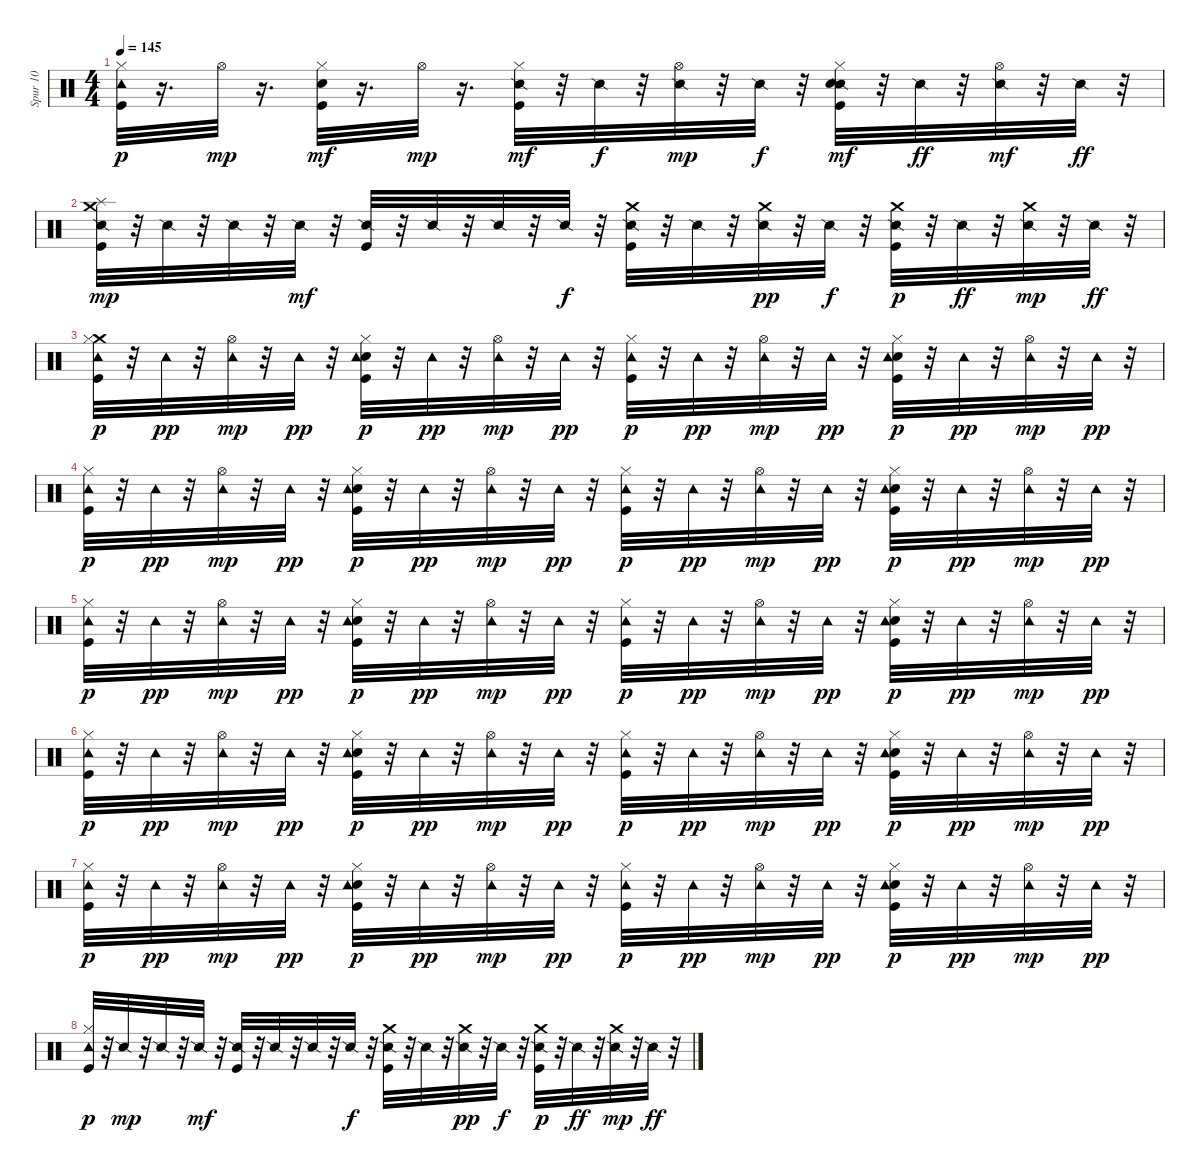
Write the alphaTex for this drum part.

\track ("Spur 10" "Spur 10") {instrument percussion}
\staff {score}
\articulation defaults
\ts (4 4)
\tempo 145
\clef neutral
\ks c
("Kick (hit)" "Hi-Hat (closed)" "Tambourine (hit)").32{dy p} r.16{d} "Hi-Hat (open)".32{dy mp} r.16{d} ("Kick (hit)" "Snare (hit) 2" "Hi-Hat (closed)").32{dy mf} r.16{d} "Hi-Hat (open)".32{dy mp} r.16{d} ("Snare (side stick) 2" "Kick (hit)" "Hi-Hat (closed)").32{dy mf} r.32 "Snare (side stick) 2".32{dy f} r.32 ("Snare (side stick) 2" "Hi-Hat (open)").32{dy mp balance 11} r.32 "Snare (side stick) 2".32{dy f} r.32 ("Snare (side stick) 2" "Kick (hit)" "Snare (hit) 2" "Hi-Hat (closed)").32{dy mf balance 8} r.32 "Snare (side stick) 2".32{dy ff} r.32 ("Snare (side stick) 2" "Hi-Hat (open)").32{dy mf balance 4} r.32 "Snare (side stick) 2".32{dy ff} r.32 |
("Crash medium (hit)" "Snare (side stick) 2" "Kick (hit)" "Splash (hit)").32{dy mp balance 8} r.32 "Snare (side stick) 2".32 r.32 "Snare (side stick) 2".32 r.32 "Snare (side stick) 2".32{dy mf} r.32 ("Snare (side stick) 2" "Kick (hit)").32 r.32 "Snare (side stick) 2".32 r.32 "Snare (side stick) 2".32 r.32 "Snare (side stick) 2".32{dy f} r.32 ("Snare (side stick) 2" "Kick (hit)" "Crash medium (hit)").32{balance 10} r.32 "Snare (side stick) 2".32 r.32 ("Snare (side stick) 2" "Crash medium (hit)").32{dy pp balance 14} r.32 "Snare (side stick) 2".32{dy f} r.32 ("Snare (side stick) 2" "Kick (hit)" "Crash medium (hit)").32{dy p balance 7} r.32 "Snare (side stick) 2".32{dy ff} r.32 ("Snare (side stick) 2" "Crash medium (hit)").32{dy mp balance 0} r.32 "Snare (side stick) 2".32{dy ff} r.32 |
("Crash medium (hit)" "Kick (hit)" "Hi-Hat (closed)" "Tambourine (hit)").32{dy p balance 8} r.32 "Tambourine (hit)".32{dy pp} r.32 ("Hi-Hat (open)" "Tambourine (hit)").32{dy mp} r.32 "Tambourine (hit)".32{dy pp} r.32 ("Kick (hit)" "Snare (hit) 2" "Hi-Hat (closed)" "Tambourine (hit)").32{dy p} r.32 "Tambourine (hit)".32{dy pp} r.32 ("Hi-Hat (open)" "Tambourine (hit)").32{dy mp} r.32 "Tambourine (hit)".32{dy pp} r.32 ("Kick (hit)" "Hi-Hat (closed)" "Tambourine (hit)").32{dy p} r.32 "Tambourine (hit)".32{dy pp} r.32 ("Hi-Hat (open)" "Tambourine (hit)").32{dy mp} r.32 "Tambourine (hit)".32{dy pp} r.32 ("Kick (hit)" "Snare (hit) 2" "Hi-Hat (closed)" "Tambourine (hit)").32{dy p} r.32 "Tambourine (hit)".32{dy pp} r.32 ("Hi-Hat (open)" "Tambourine (hit)").32{dy mp} r.32 "Tambourine (hit)".32{dy pp} r.32 |
("Kick (hit)" "Hi-Hat (closed)" "Tambourine (hit)").32{dy p} r.32 "Tambourine (hit)".32{dy pp} r.32 ("Hi-Hat (open)" "Tambourine (hit)").32{dy mp} r.32 "Tambourine (hit)".32{dy pp} r.32 ("Kick (hit)" "Snare (hit) 2" "Hi-Hat (closed)" "Tambourine (hit)").32{dy p} r.32 "Tambourine (hit)".32{dy pp} r.32 ("Hi-Hat (open)" "Tambourine (hit)").32{dy mp} r.32 "Tambourine (hit)".32{dy pp} r.32 ("Kick (hit)" "Hi-Hat (closed)" "Tambourine (hit)").32{dy p} r.32 "Tambourine (hit)".32{dy pp} r.32 ("Hi-Hat (open)" "Tambourine (hit)").32{dy mp} r.32 "Tambourine (hit)".32{dy pp} r.32 ("Kick (hit)" "Snare (hit) 2" "Hi-Hat (closed)" "Tambourine (hit)").32{dy p} r.32 "Tambourine (hit)".32{dy pp} r.32 ("Hi-Hat (open)" "Tambourine (hit)").32{dy mp} r.32 "Tambourine (hit)".32{dy pp} r.32 |
("Kick (hit)" "Hi-Hat (closed)" "Tambourine (hit)").32{dy p} r.32 "Tambourine (hit)".32{dy pp} r.32 ("Hi-Hat (open)" "Tambourine (hit)").32{dy mp} r.32 "Tambourine (hit)".32{dy pp} r.32 ("Kick (hit)" "Snare (hit) 2" "Hi-Hat (closed)" "Tambourine (hit)").32{dy p} r.32 "Tambourine (hit)".32{dy pp} r.32 ("Hi-Hat (open)" "Tambourine (hit)").32{dy mp} r.32 "Tambourine (hit)".32{dy pp} r.32 ("Kick (hit)" "Hi-Hat (closed)" "Tambourine (hit)").32{dy p} r.32 "Tambourine (hit)".32{dy pp} r.32 ("Hi-Hat (open)" "Tambourine (hit)").32{dy mp} r.32 "Tambourine (hit)".32{dy pp} r.32 ("Kick (hit)" "Snare (hit) 2" "Hi-Hat (closed)" "Tambourine (hit)").32{dy p} r.32 "Tambourine (hit)".32{dy pp} r.32 ("Hi-Hat (open)" "Tambourine (hit)").32{dy mp} r.32 "Tambourine (hit)".32{dy pp} r.32 |
("Kick (hit)" "Hi-Hat (closed)" "Tambourine (hit)").32{dy p} r.32 "Tambourine (hit)".32{dy pp} r.32 ("Hi-Hat (open)" "Tambourine (hit)").32{dy mp} r.32 "Tambourine (hit)".32{dy pp} r.32 ("Kick (hit)" "Snare (hit) 2" "Hi-Hat (closed)" "Tambourine (hit)").32{dy p} r.32 "Tambourine (hit)".32{dy pp} r.32 ("Hi-Hat (open)" "Tambourine (hit)").32{dy mp} r.32 "Tambourine (hit)".32{dy pp} r.32 ("Kick (hit)" "Hi-Hat (closed)" "Tambourine (hit)").32{dy p} r.32 "Tambourine (hit)".32{dy pp} r.32 ("Hi-Hat (open)" "Tambourine (hit)").32{dy mp} r.32 "Tambourine (hit)".32{dy pp} r.32 ("Kick (hit)" "Snare (hit) 2" "Hi-Hat (closed)" "Tambourine (hit)").32{dy p} r.32 "Tambourine (hit)".32{dy pp} r.32 ("Hi-Hat (open)" "Tambourine (hit)").32{dy mp} r.32 "Tambourine (hit)".32{dy pp} r.32 |
("Kick (hit)" "Hi-Hat (closed)" "Tambourine (hit)").32{dy p} r.32 "Tambourine (hit)".32{dy pp} r.32 ("Hi-Hat (open)" "Tambourine (hit)").32{dy mp} r.32 "Tambourine (hit)".32{dy pp} r.32 ("Kick (hit)" "Snare (hit) 2" "Hi-Hat (closed)" "Tambourine (hit)").32{dy p} r.32 "Tambourine (hit)".32{dy pp} r.32 ("Hi-Hat (open)" "Tambourine (hit)").32{dy mp} r.32 "Tambourine (hit)".32{dy pp} r.32 ("Kick (hit)" "Hi-Hat (closed)" "Tambourine (hit)").32{dy p} r.32 "Tambourine (hit)".32{dy pp} r.32 ("Hi-Hat (open)" "Tambourine (hit)").32{dy mp} r.32 "Tambourine (hit)".32{dy pp} r.32 ("Kick (hit)" "Snare (hit) 2" "Hi-Hat (closed)" "Tambourine (hit)").32{dy p} r.32 "Tambourine (hit)".32{dy pp} r.32 ("Hi-Hat (open)" "Tambourine (hit)").32{dy mp} r.32 "Tambourine (hit)".32{dy pp} r.32 |
("Kick (hit)" "Hi-Hat (closed)" "Tambourine (hit)").32{dy p} r.32 "Snare (side stick) 2".32{dy mp} r.32 "Snare (side stick) 2".32 r.32 "Snare (side stick) 2".32{dy mf} r.32 ("Snare (side stick) 2" "Kick (hit)").32 r.32 "Snare (side stick) 2".32 r.32 "Snare (side stick) 2".32 r.32 "Snare (side stick) 2".32{dy f} r.32 ("Snare (side stick) 2" "Kick (hit)" "Crash medium (hit)").32{balance 10} r.32 "Snare (side stick) 2".32 r.32 ("Snare (side stick) 2" "Crash medium (hit)").32{dy pp balance 14} r.32 "Snare (side stick) 2".32{dy f} r.32 ("Snare (side stick) 2" "Kick (hit)" "Crash medium (hit)").32{dy p balance 7} r.32 "Snare (side stick) 2".32{dy ff} r.32 ("Snare (side stick) 2" "Crash medium (hit)").32{dy mp balance 0} r.32 "Snare (side stick) 2".32{dy ff} r.32
